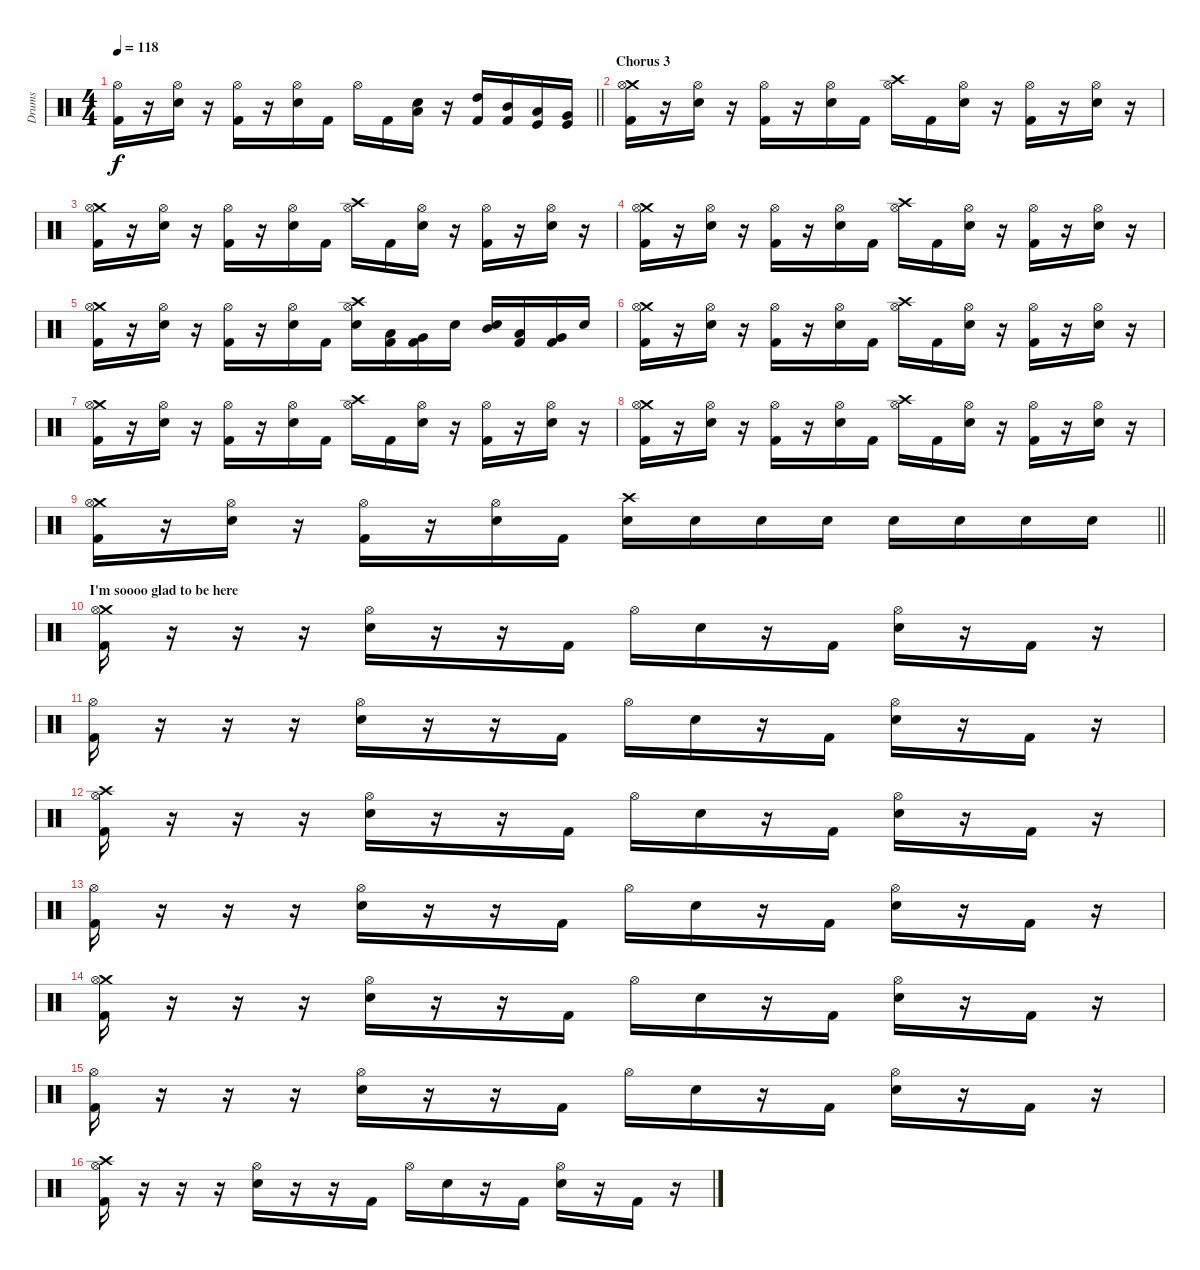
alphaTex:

\track ("Drums" "Drums") {instrument percussion}
\staff {score}
\articulation defaults
\ts (4 4)
\tempo 118
\clef neutral
\barLineRight lightlight
\ks c
("Hi-Hat (open)" "Kick (hit) 2").16{dy f} r.16 ("Hi-Hat (open)" "Electric Snare (hit)").16 r.16 ("Hi-Hat (open)" "Kick (hit) 2").16 r.16 ("Hi-Hat (open)" "Electric Snare (hit)").16 "Kick (hit) 2".16 "Hi-Hat (open)".16 "Kick (hit) 2".16 ("Low Tom (hit)" "Electric Snare (hit)").16 r.16 ("High Tom (hit)" "Kick (hit) 2").16 ("Mid Tom (hit)" "Kick (hit) 2").16 ("Low Tom (hit)" "Kick (hit)").16 ("Very Low Tom (hit)" "Kick (hit)").16 |
\section ("" "Chorus 3")
("Crash medium (hit)" "Hi-Hat (open)" "Kick (hit) 2").16 r.16 ("Hi-Hat (open)" "Electric Snare (hit)").16 r.16 ("Hi-Hat (open)" "Kick (hit) 2").16 r.16 ("Hi-Hat (open)" "Electric Snare (hit)").16 "Kick (hit) 2".16 ("Crash high (hit)" "Hi-Hat (open)").16 "Kick (hit) 2".16 ("Hi-Hat (open)" "Electric Snare (hit)").16 r.16 ("Hi-Hat (open)" "Kick (hit) 2").16 r.16 ("Hi-Hat (open)" "Electric Snare (hit)").16 r.16 |
("Crash medium (hit)" "Hi-Hat (open)" "Kick (hit) 2").16 r.16 ("Hi-Hat (open)" "Electric Snare (hit)").16 r.16 ("Hi-Hat (open)" "Kick (hit) 2").16 r.16 ("Hi-Hat (open)" "Electric Snare (hit)").16 "Kick (hit) 2".16 ("Crash high (hit)" "Hi-Hat (open)").16 "Kick (hit) 2".16 ("Hi-Hat (open)" "Electric Snare (hit)").16 r.16 ("Hi-Hat (open)" "Kick (hit) 2").16 r.16 ("Hi-Hat (open)" "Electric Snare (hit)").16 r.16 |
("Crash medium (hit)" "Hi-Hat (open)" "Kick (hit) 2").16 r.16 ("Hi-Hat (open)" "Electric Snare (hit)").16 r.16 ("Hi-Hat (open)" "Kick (hit) 2").16 r.16 ("Hi-Hat (open)" "Electric Snare (hit)").16 "Kick (hit) 2".16 ("Crash high (hit)" "Hi-Hat (open)").16 "Kick (hit) 2".16 ("Hi-Hat (open)" "Electric Snare (hit)").16 r.16 ("Hi-Hat (open)" "Kick (hit) 2").16 r.16 ("Hi-Hat (open)" "Electric Snare (hit)").16 r.16 |
("Crash medium (hit)" "Hi-Hat (open)" "Kick (hit) 2").16 r.16 ("Hi-Hat (open)" "Electric Snare (hit)").16 r.16 ("Hi-Hat (open)" "Kick (hit) 2").16 r.16 ("Hi-Hat (open)" "Electric Snare (hit)").16 "Kick (hit) 2".16 ("Crash high (hit)" "Hi-Hat (open)" "Electric Snare (hit)").16 ("Low Tom (hit)" "Kick (hit) 2").16 ("Very Low Tom (hit)" "Kick (hit) 2").16 "Electric Snare (hit)".16 ("Mid Tom (hit)" "Electric Snare (hit)").16 ("Low Tom (hit)" "Kick (hit) 2").16 ("Very Low Tom (hit)" "Kick (hit) 2").16 "Electric Snare (hit)".16 |
("Crash medium (hit)" "Hi-Hat (open)" "Kick (hit) 2").16 r.16 ("Hi-Hat (open)" "Electric Snare (hit)").16 r.16 ("Hi-Hat (open)" "Kick (hit) 2").16 r.16 ("Hi-Hat (open)" "Electric Snare (hit)").16 "Kick (hit) 2".16 ("Crash high (hit)" "Hi-Hat (open)").16 "Kick (hit) 2".16 ("Hi-Hat (open)" "Electric Snare (hit)").16 r.16 ("Hi-Hat (open)" "Kick (hit) 2").16 r.16 ("Hi-Hat (open)" "Electric Snare (hit)").16 r.16 |
("Crash medium (hit)" "Hi-Hat (open)" "Kick (hit) 2").16 r.16 ("Hi-Hat (open)" "Electric Snare (hit)").16 r.16 ("Hi-Hat (open)" "Kick (hit) 2").16 r.16 ("Hi-Hat (open)" "Electric Snare (hit)").16 "Kick (hit) 2".16 ("Crash high (hit)" "Hi-Hat (open)").16 "Kick (hit) 2".16 ("Hi-Hat (open)" "Electric Snare (hit)").16 r.16 ("Hi-Hat (open)" "Kick (hit) 2").16 r.16 ("Hi-Hat (open)" "Electric Snare (hit)").16 r.16 |
("Crash medium (hit)" "Hi-Hat (open)" "Kick (hit) 2").16 r.16 ("Hi-Hat (open)" "Electric Snare (hit)").16 r.16 ("Hi-Hat (open)" "Kick (hit) 2").16 r.16 ("Hi-Hat (open)" "Electric Snare (hit)").16 "Kick (hit) 2".16 ("Crash high (hit)" "Hi-Hat (open)").16 "Kick (hit) 2".16 ("Hi-Hat (open)" "Electric Snare (hit)").16 r.16 ("Hi-Hat (open)" "Kick (hit) 2").16 r.16 ("Hi-Hat (open)" "Electric Snare (hit)").16 r.16 |
\barLineRight lightlight
("Crash medium (hit)" "Hi-Hat (open)" "Kick (hit) 2").16 r.16 ("Hi-Hat (open)" "Electric Snare (hit)").16 r.16 ("Hi-Hat (open)" "Kick (hit) 2").16 r.16 ("Hi-Hat (open)" "Electric Snare (hit)").16 "Kick (hit) 2".16 ("Crash high (hit)" "Electric Snare (hit)").16 "Electric Snare (hit)".16 "Electric Snare (hit)".16 "Electric Snare (hit)".16 "Electric Snare (hit)".16 "Electric Snare (hit)".16 "Electric Snare (hit)".16 "Electric Snare (hit)".16 |
\section ("" "I'm soooo glad to be here")
("Crash medium (hit)" "Hi-Hat (open)" "Kick (hit) 2").16 r.16 r.16 r.16 ("Hi-Hat (open)" "Electric Snare (hit)").16 r.16 r.16 "Kick (hit) 2".16 "Hi-Hat (open)".16 "Electric Snare (hit)".16 r.16 "Kick (hit) 2".16 ("Hi-Hat (open)" "Electric Snare (hit)").16 r.16 "Kick (hit) 2".16 r.16 |
("Hi-Hat (open)" "Kick (hit) 2").16 r.16 r.16 r.16 ("Hi-Hat (open)" "Electric Snare (hit)").16 r.16 r.16 "Kick (hit) 2".16 "Hi-Hat (open)".16 "Electric Snare (hit)".16 r.16 "Kick (hit) 2".16 ("Hi-Hat (open)" "Electric Snare (hit)").16 r.16 "Kick (hit) 2".16 r.16 |
("Crash high (hit)" "Hi-Hat (open)" "Kick (hit) 2").16 r.16 r.16 r.16 ("Hi-Hat (open)" "Electric Snare (hit)").16 r.16 r.16 "Kick (hit) 2".16 "Hi-Hat (open)".16 "Electric Snare (hit)".16 r.16 "Kick (hit) 2".16 ("Hi-Hat (open)" "Electric Snare (hit)").16 r.16 "Kick (hit) 2".16 r.16 |
("Hi-Hat (open)" "Kick (hit) 2").16 r.16 r.16 r.16 ("Hi-Hat (open)" "Electric Snare (hit)").16 r.16 r.16 "Kick (hit) 2".16 "Hi-Hat (open)".16 "Electric Snare (hit)".16 r.16 "Kick (hit) 2".16 ("Hi-Hat (open)" "Electric Snare (hit)").16 r.16 "Kick (hit) 2".16 r.16 |
("Crash medium (hit)" "Hi-Hat (open)" "Kick (hit) 2").16 r.16 r.16 r.16 ("Hi-Hat (open)" "Electric Snare (hit)").16 r.16 r.16 "Kick (hit) 2".16 "Hi-Hat (open)".16 "Electric Snare (hit)".16 r.16 "Kick (hit) 2".16 ("Hi-Hat (open)" "Electric Snare (hit)").16 r.16 "Kick (hit) 2".16 r.16 |
("Hi-Hat (open)" "Kick (hit) 2").16 r.16 r.16 r.16 ("Hi-Hat (open)" "Electric Snare (hit)").16 r.16 r.16 "Kick (hit) 2".16 "Hi-Hat (open)".16 "Electric Snare (hit)".16 r.16 "Kick (hit) 2".16 ("Hi-Hat (open)" "Electric Snare (hit)").16 r.16 "Kick (hit) 2".16 r.16 |
("Crash high (hit)" "Hi-Hat (open)" "Kick (hit) 2").16 r.16 r.16 r.16 ("Hi-Hat (open)" "Electric Snare (hit)").16 r.16 r.16 "Kick (hit) 2".16 "Hi-Hat (open)".16 "Electric Snare (hit)".16 r.16 "Kick (hit) 2".16 ("Hi-Hat (open)" "Electric Snare (hit)").16 r.16 "Kick (hit) 2".16 r.16
